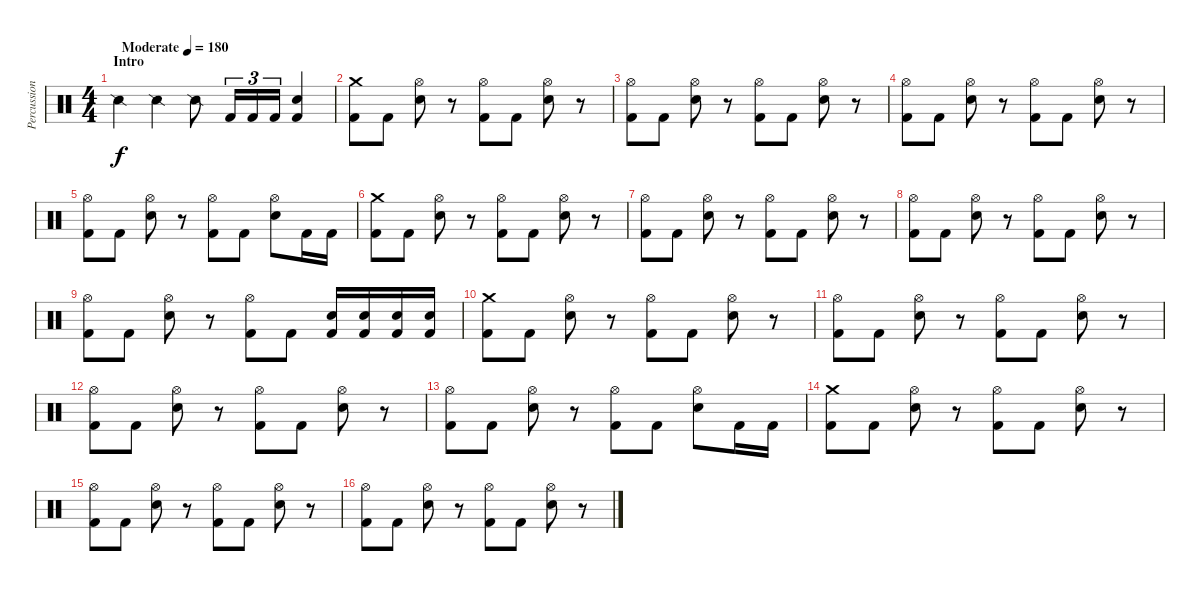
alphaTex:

\track ("Percussion" "Percussion") {instrument percussion}
\staff {score}
\articulation defaults
\ts (4 4)
\section ("" "Intro")
\tempo (180 "Moderate")
\clef neutral
\ks c "Snare (side stick) 2".4{dy f} "Snare (side stick) 2".4 "Snare (side stick) 2".8 "Kick (hit) 2".16{tu (3 2)} "Kick (hit) 2".16{tu (3 2)} "Kick (hit) 2".16{tu (3 2)}
("Electric Snare (hit)" "Kick (hit) 2").4 |
("Crash medium (hit)" "Kick (hit) 2").8 "Kick (hit) 2".8 ("Hi-Hat (open)" "Electric Snare (hit)").8 r.8 ("Hi-Hat (open)" "Kick (hit) 2").8 "Kick (hit) 2".8 ("Hi-Hat (open)" "Electric Snare (hit)").8 r.8 |
("Hi-Hat (open)" "Kick (hit) 2").8 "Kick (hit) 2".8 ("Hi-Hat (open)" "Electric Snare (hit)").8 r.8 ("Hi-Hat (open)" "Kick (hit) 2").8 "Kick (hit) 2".8 ("Hi-Hat (open)" "Electric Snare (hit)").8 r.8 |
("Hi-Hat (open)" "Kick (hit) 2").8 "Kick (hit) 2".8 ("Hi-Hat (open)" "Electric Snare (hit)").8 r.8 ("Hi-Hat (open)" "Kick (hit) 2").8 "Kick (hit) 2".8 ("Hi-Hat (open)" "Electric Snare (hit)").8 r.8 |
("Hi-Hat (open)" "Kick (hit) 2").8 "Kick (hit) 2".8 ("Hi-Hat (open)" "Electric Snare (hit)").8 r.8 ("Hi-Hat (open)" "Kick (hit) 2").8 "Kick (hit) 2".8 ("Hi-Hat (open)" "Electric Snare (hit)").8 "Kick (hit) 2".16 "Kick (hit) 2".16 |
("Crash medium (hit)" "Kick (hit) 2").8 "Kick (hit) 2".8 ("Hi-Hat (open)" "Electric Snare (hit)").8 r.8 ("Hi-Hat (open)" "Kick (hit) 2").8 "Kick (hit) 2".8 ("Hi-Hat (open)" "Electric Snare (hit)").8 r.8 |
("Hi-Hat (open)" "Kick (hit) 2").8 "Kick (hit) 2".8 ("Hi-Hat (open)" "Electric Snare (hit)").8 r.8 ("Hi-Hat (open)" "Kick (hit) 2").8 "Kick (hit) 2".8 ("Hi-Hat (open)" "Electric Snare (hit)").8 r.8 |
("Hi-Hat (open)" "Kick (hit) 2").8 "Kick (hit) 2".8 ("Hi-Hat (open)" "Electric Snare (hit)").8 r.8 ("Hi-Hat (open)" "Kick (hit) 2").8 "Kick (hit) 2".8 ("Hi-Hat (open)" "Electric Snare (hit)").8 r.8 |
("Hi-Hat (open)" "Kick (hit) 2").8 "Kick (hit) 2".8 ("Hi-Hat (open)" "Electric Snare (hit)").8 r.8 ("Hi-Hat (open)" "Kick (hit) 2").8 "Kick (hit) 2".8 ("Electric Snare (hit)" "Kick (hit) 2").16 ("Electric Snare (hit)" "Kick (hit) 2").16 ("Electric Snare (hit)" "Kick (hit) 2").16 ("Electric Snare (hit)" "Kick (hit) 2").16 |
("Crash medium (hit)" "Kick (hit) 2").8 "Kick (hit) 2".8 ("Hi-Hat (open)" "Electric Snare (hit)").8 r.8 ("Hi-Hat (open)" "Kick (hit) 2").8 "Kick (hit) 2".8 ("Hi-Hat (open)" "Electric Snare (hit)").8 r.8 |
("Hi-Hat (open)" "Kick (hit) 2").8 "Kick (hit) 2".8 ("Hi-Hat (open)" "Electric Snare (hit)").8 r.8 ("Hi-Hat (open)" "Kick (hit) 2").8 "Kick (hit) 2".8 ("Hi-Hat (open)" "Electric Snare (hit)").8 r.8 |
("Hi-Hat (open)" "Kick (hit) 2").8 "Kick (hit) 2".8 ("Hi-Hat (open)" "Electric Snare (hit)").8 r.8 ("Hi-Hat (open)" "Kick (hit) 2").8 "Kick (hit) 2".8 ("Hi-Hat (open)" "Electric Snare (hit)").8 r.8 |
("Hi-Hat (open)" "Kick (hit) 2").8 "Kick (hit) 2".8 ("Hi-Hat (open)" "Electric Snare (hit)").8 r.8 ("Hi-Hat (open)" "Kick (hit) 2").8 "Kick (hit) 2".8 ("Hi-Hat (open)" "Electric Snare (hit)").8 "Kick (hit) 2".16 "Kick (hit) 2".16 |
("Crash medium (hit)" "Kick (hit) 2").8 "Kick (hit) 2".8 ("Hi-Hat (open)" "Electric Snare (hit)").8 r.8 ("Hi-Hat (open)" "Kick (hit) 2").8 "Kick (hit) 2".8 ("Hi-Hat (open)" "Electric Snare (hit)").8 r.8 |
("Hi-Hat (open)" "Kick (hit) 2").8 "Kick (hit) 2".8 ("Hi-Hat (open)" "Electric Snare (hit)").8 r.8 ("Hi-Hat (open)" "Kick (hit) 2").8 "Kick (hit) 2".8 ("Hi-Hat (open)" "Electric Snare (hit)").8 r.8 |
("Hi-Hat (open)" "Kick (hit) 2").8 "Kick (hit) 2".8 ("Hi-Hat (open)" "Electric Snare (hit)").8 r.8 ("Hi-Hat (open)" "Kick (hit) 2").8 "Kick (hit) 2".8 ("Hi-Hat (open)" "Electric Snare (hit)").8 r.8
